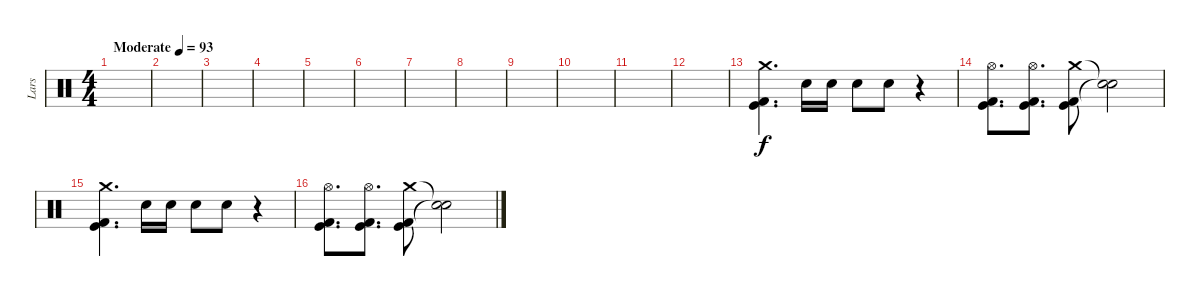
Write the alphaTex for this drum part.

\track ("Lars" "Lars") {instrument percussion}
\staff {score}
\articulation defaults
\ts (4 4)
\tempo (93 "Moderate")
\clef neutral
\ks c
|
|
|
|
|
|
|
|
|
|
|
|
("Crash medium (hit)" "Kick (hit)" "Kick (hit) 2").4{d} "Electric Snare (hit)".16 "Electric Snare (hit)".16 "Electric Snare (hit)".8 "Electric Snare (hit)".8 r.4 |
("Hi-Hat (open)" "Kick (hit)" "Kick (hit) 2").8{d} ("Hi-Hat (open)" "Kick (hit)" "Kick (hit) 2").8{d} ("Crash medium (hit)" "Kick (hit)" "Kick (hit) 2").8 ("Snare (hit)"{t} "Snare (hit)"{t}).2 |
("Crash medium (hit)" "Kick (hit)" "Kick (hit) 2").4{d} "Electric Snare (hit)".16 "Electric Snare (hit)".16 "Electric Snare (hit)".8 "Electric Snare (hit)".8 r.4 |
("Hi-Hat (open)" "Kick (hit)" "Kick (hit) 2").8{d} ("Hi-Hat (open)" "Kick (hit)" "Kick (hit) 2").8{d} ("Crash medium (hit)" "Kick (hit)" "Kick (hit) 2").8 ("Snare (hit)"{t} "Snare (hit)"{t}).2
